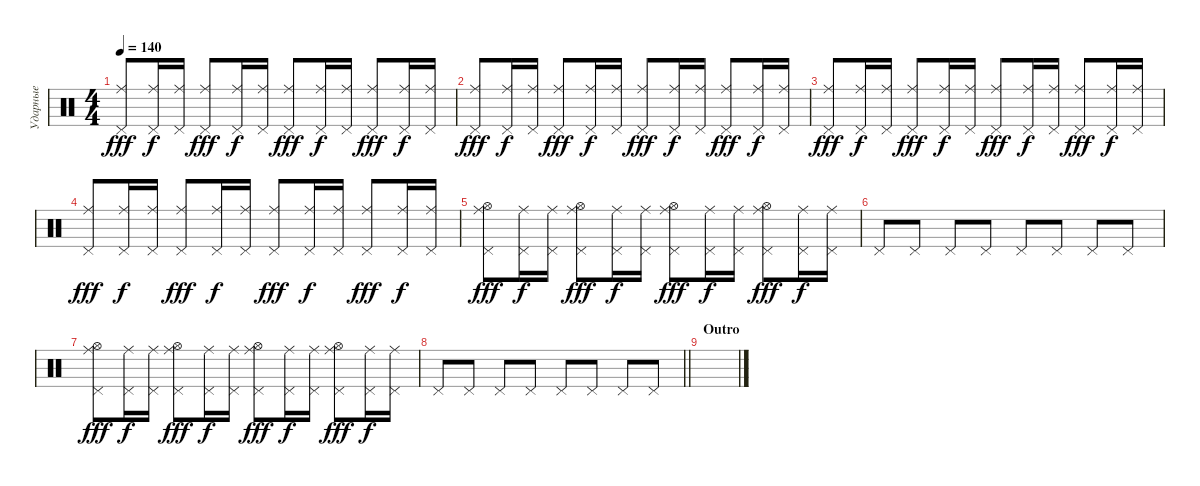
\track ("Ударные" "Ударные") {instrument percussion}
\staff {score}
\articulation defaults
\ts (4 4)
\tempo 140
\clef neutral
\ks c
("Ride (middle)" "Pedal Hi-Hat (hit)").8{dy fff} ("Ride (middle)" "Pedal Hi-Hat (hit)").16{dy f} ("Ride (middle)" "Pedal Hi-Hat (hit)").16 ("Ride (middle)" "Pedal Hi-Hat (hit)").8{dy fff} ("Ride (middle)" "Pedal Hi-Hat (hit)").16{dy f} ("Ride (middle)" "Pedal Hi-Hat (hit)").16 ("Ride (middle)" "Pedal Hi-Hat (hit)").8{dy fff} ("Ride (middle)" "Pedal Hi-Hat (hit)").16{dy f} ("Ride (middle)" "Pedal Hi-Hat (hit)").16 ("Ride (middle)" "Pedal Hi-Hat (hit)").8{dy fff} ("Ride (middle)" "Pedal Hi-Hat (hit)").16{dy f} ("Ride (middle)" "Pedal Hi-Hat (hit)").16 |
("Ride (middle)" "Pedal Hi-Hat (hit)").8{dy fff} ("Ride (middle)" "Pedal Hi-Hat (hit)").16{dy f} ("Ride (middle)" "Pedal Hi-Hat (hit)").16 ("Ride (middle)" "Pedal Hi-Hat (hit)").8{dy fff} ("Ride (middle)" "Pedal Hi-Hat (hit)").16{dy f} ("Ride (middle)" "Pedal Hi-Hat (hit)").16 ("Ride (middle)" "Pedal Hi-Hat (hit)").8{dy fff} ("Ride (middle)" "Pedal Hi-Hat (hit)").16{dy f} ("Ride (middle)" "Pedal Hi-Hat (hit)").16 ("Ride (middle)" "Pedal Hi-Hat (hit)").8{dy fff} ("Ride (middle)" "Pedal Hi-Hat (hit)").16{dy f} ("Ride (middle)" "Pedal Hi-Hat (hit)").16 |
("Ride (middle)" "Pedal Hi-Hat (hit)").8{dy fff} ("Ride (middle)" "Pedal Hi-Hat (hit)").16{dy f} ("Ride (middle)" "Pedal Hi-Hat (hit)").16 ("Ride (middle)" "Pedal Hi-Hat (hit)").8{dy fff} ("Ride (middle)" "Pedal Hi-Hat (hit)").16{dy f} ("Ride (middle)" "Pedal Hi-Hat (hit)").16 ("Ride (middle)" "Pedal Hi-Hat (hit)").8{dy fff} ("Ride (middle)" "Pedal Hi-Hat (hit)").16{dy f} ("Ride (middle)" "Pedal Hi-Hat (hit)").16 ("Ride (middle)" "Pedal Hi-Hat (hit)").8{dy fff} ("Ride (middle)" "Pedal Hi-Hat (hit)").16{dy f} ("Ride (middle)" "Pedal Hi-Hat (hit)").16 |
("Ride (middle)" "Pedal Hi-Hat (hit)").8{dy fff} ("Ride (middle)" "Pedal Hi-Hat (hit)").16{dy f} ("Ride (middle)" "Pedal Hi-Hat (hit)").16 ("Ride (middle)" "Pedal Hi-Hat (hit)").8{dy fff} ("Ride (middle)" "Pedal Hi-Hat (hit)").16{dy f} ("Ride (middle)" "Pedal Hi-Hat (hit)").16 ("Ride (middle)" "Pedal Hi-Hat (hit)").8{dy fff} ("Ride (middle)" "Pedal Hi-Hat (hit)").16{dy f} ("Ride (middle)" "Pedal Hi-Hat (hit)").16 ("Ride (middle)" "Pedal Hi-Hat (hit)").8{dy fff} ("Ride (middle)" "Pedal Hi-Hat (hit)").16{dy f} ("Ride (middle)" "Pedal Hi-Hat (hit)").16 |
("Ride (middle)" "Pedal Hi-Hat (hit)" "Hi-Hat (open)").8{dy fff} ("Ride (middle)" "Pedal Hi-Hat (hit)").16{dy f} ("Ride (middle)" "Pedal Hi-Hat (hit)").16 ("Ride (middle)" "Pedal Hi-Hat (hit)" "Hi-Hat (open)").8{dy fff} ("Ride (middle)" "Pedal Hi-Hat (hit)").16{dy f} ("Ride (middle)" "Pedal Hi-Hat (hit)").16 ("Ride (middle)" "Pedal Hi-Hat (hit)" "Hi-Hat (open)").8{dy fff} ("Ride (middle)" "Pedal Hi-Hat (hit)").16{dy f} ("Ride (middle)" "Pedal Hi-Hat (hit)").16 ("Ride (middle)" "Pedal Hi-Hat (hit)" "Hi-Hat (open)").8{dy fff} ("Ride (middle)" "Pedal Hi-Hat (hit)").16{dy f} ("Ride (middle)" "Pedal Hi-Hat (hit)").16 |
"Pedal Hi-Hat (hit)".8 "Pedal Hi-Hat (hit)".8 "Pedal Hi-Hat (hit)".8 "Pedal Hi-Hat (hit)".8 "Pedal Hi-Hat (hit)".8 "Pedal Hi-Hat (hit)".8 "Pedal Hi-Hat (hit)".8 "Pedal Hi-Hat (hit)".8 |
("Ride (middle)" "Pedal Hi-Hat (hit)" "Hi-Hat (open)").8{dy fff} ("Ride (middle)" "Pedal Hi-Hat (hit)").16{dy f} ("Ride (middle)" "Pedal Hi-Hat (hit)").16 ("Ride (middle)" "Pedal Hi-Hat (hit)" "Hi-Hat (open)").8{dy fff} ("Ride (middle)" "Pedal Hi-Hat (hit)").16{dy f} ("Ride (middle)" "Pedal Hi-Hat (hit)").16 ("Ride (middle)" "Pedal Hi-Hat (hit)" "Hi-Hat (open)").8{dy fff} ("Ride (middle)" "Pedal Hi-Hat (hit)").16{dy f} ("Ride (middle)" "Pedal Hi-Hat (hit)").16 ("Ride (middle)" "Pedal Hi-Hat (hit)" "Hi-Hat (open)").8{dy fff} ("Ride (middle)" "Pedal Hi-Hat (hit)").16{dy f} ("Ride (middle)" "Pedal Hi-Hat (hit)").16 |
\barLineRight lightlight "Pedal Hi-Hat (hit)".8 "Pedal Hi-Hat (hit)".8 "Pedal Hi-Hat (hit)".8 "Pedal Hi-Hat (hit)".8 "Pedal Hi-Hat (hit)".8 "Pedal Hi-Hat (hit)".8 "Pedal Hi-Hat (hit)".8 "Pedal Hi-Hat (hit)".8
|
\section ("" "Outro")
